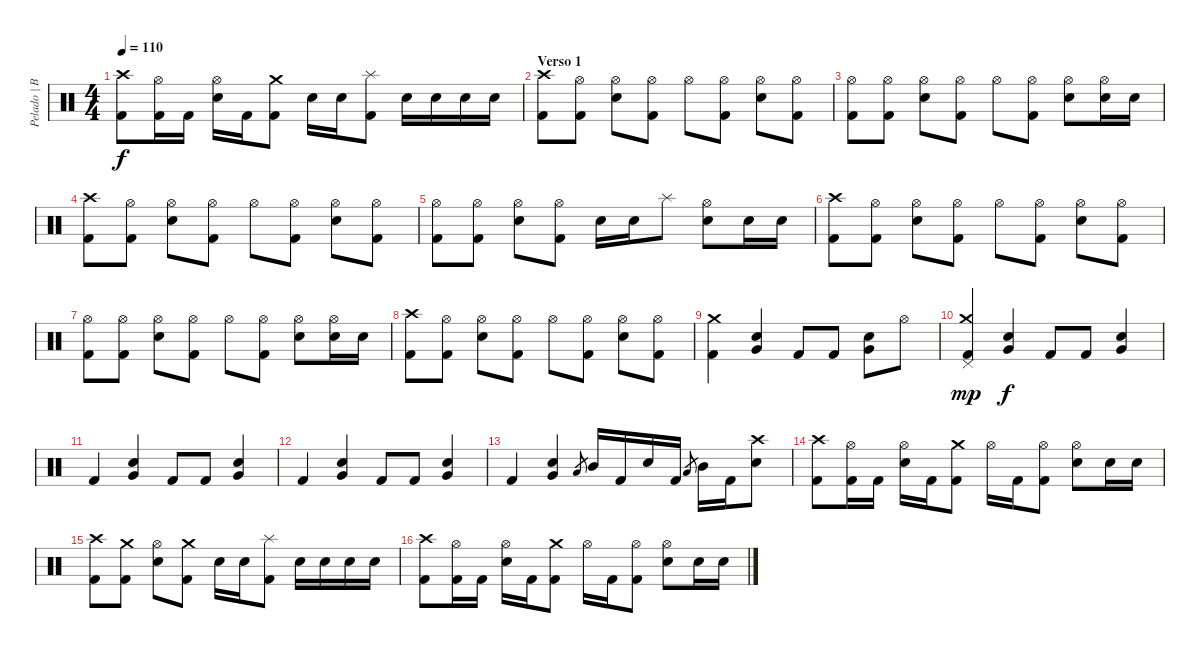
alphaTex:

\track ("Pelado | Bateria" "Pelado | B") {instrument percussion}
\staff {score}
\articulation defaults
\ts (4 4)
\tempo 110
\clef neutral
\ks c
("Crash high (hit)" "Kick (hit) 2").8{dy f} ("Hi-Hat (open)" "Kick (hit) 2").16 "Kick (hit) 2".16 ("Hi-Hat (open)" "Snare (hit) 2").16 "Kick (hit) 2".16 ("Crash medium (hit)" "Kick (hit) 2").8 "Snare (hit) 2".16 "Snare (hit) 2".16 ("Splash (hit)" "Kick (hit) 2").8 "Snare (hit) 2".16 "Snare (hit) 2".16 "Snare (hit) 2".16 "Snare (hit) 2".16 |
\section ("" "Verso 1")
("Crash high (hit)" "Kick (hit) 2").8 ("Hi-Hat (open)" "Kick (hit) 2").8 ("Hi-Hat (open)" "Snare (hit) 2").8 ("Hi-Hat (open)" "Kick (hit) 2").8 "Hi-Hat (open)".8 ("Hi-Hat (open)" "Kick (hit) 2").8 ("Hi-Hat (open)" "Snare (hit) 2").8 ("Hi-Hat (open)" "Kick (hit) 2").8 |
("Hi-Hat (open)" "Kick (hit) 2").8 ("Hi-Hat (open)" "Kick (hit) 2").8 ("Hi-Hat (open)" "Snare (hit) 2").8 ("Hi-Hat (open)" "Kick (hit) 2").8 "Hi-Hat (open)".8 ("Hi-Hat (open)" "Kick (hit) 2").8 ("Hi-Hat (open)" "Snare (hit) 2").8 ("Hi-Hat (open)" "Snare (hit) 2").16 "Snare (hit) 2".16 |
("Crash high (hit)" "Kick (hit) 2").8 ("Hi-Hat (open)" "Kick (hit) 2").8 ("Hi-Hat (open)" "Snare (hit) 2").8 ("Hi-Hat (open)" "Kick (hit) 2").8 "Hi-Hat (open)".8 ("Hi-Hat (open)" "Kick (hit) 2").8 ("Hi-Hat (open)" "Snare (hit) 2").8 ("Hi-Hat (open)" "Kick (hit) 2").8 |
("Hi-Hat (open)" "Kick (hit) 2").8 ("Hi-Hat (open)" "Kick (hit) 2").8 ("Hi-Hat (open)" "Snare (hit) 2").8 ("Hi-Hat (open)" "Kick (hit) 2").8 "Snare (hit) 2".16 "Snare (hit) 2".16 "Splash (hit)".8 ("Hi-Hat (open)" "Snare (hit) 2").8 "Snare (hit) 2".16 "Snare (hit) 2".16 |
("Crash high (hit)" "Kick (hit) 2").8 ("Hi-Hat (open)" "Kick (hit) 2").8 ("Hi-Hat (open)" "Snare (hit) 2").8 ("Hi-Hat (open)" "Kick (hit) 2").8 "Hi-Hat (open)".8 ("Hi-Hat (open)" "Kick (hit) 2").8 ("Hi-Hat (open)" "Snare (hit) 2").8 ("Hi-Hat (open)" "Kick (hit) 2").8 |
("Hi-Hat (open)" "Kick (hit) 2").8 ("Hi-Hat (open)" "Kick (hit) 2").8 ("Hi-Hat (open)" "Snare (hit) 2").8 ("Hi-Hat (open)" "Kick (hit) 2").8 "Hi-Hat (open)".8 ("Hi-Hat (open)" "Kick (hit) 2").8 ("Hi-Hat (open)" "Snare (hit) 2").8 ("Hi-Hat (open)" "Snare (hit) 2").16 "Snare (hit) 2".16 |
("Crash high (hit)" "Kick (hit) 2").8 ("Hi-Hat (open)" "Kick (hit) 2").8 ("Hi-Hat (open)" "Snare (hit) 2").8 ("Hi-Hat (open)" "Kick (hit) 2").8 "Hi-Hat (open)".8 ("Hi-Hat (open)" "Kick (hit) 2").8 ("Hi-Hat (open)" "Snare (hit) 2").8 ("Hi-Hat (open)" "Kick (hit) 2").8 |
("Crash medium (hit)" "Kick (hit) 2").4 ("Very Low Tom (hit)" "Snare (hit) 2").4 "Kick (hit) 2".8 "Kick (hit) 2".8 ("Very Low Tom (hit)" "Snare (hit) 2").8 "Hi-Hat (open)".8 |
("Crash medium (hit)" "Pedal Hi-Hat (hit)" "Kick (hit) 2").4{dy mp} ("Very Low Tom (hit)" "Snare (hit) 2").4{dy f} "Kick (hit) 2".8 "Kick (hit) 2".8 ("Very Low Tom (hit)" "Snare (hit) 2").4 |
"Kick (hit) 2".4 ("Very Low Tom (hit)" "Snare (hit) 2").4 "Kick (hit) 2".8 "Kick (hit) 2".8 ("Very Low Tom (hit)" "Snare (hit) 2").4 |
"Kick (hit) 2".4 ("Very Low Tom (hit)" "Snare (hit) 2").4 "Kick (hit) 2".8 "Kick (hit) 2".8 ("Very Low Tom (hit)" "Snare (hit) 2").4 |
"Kick (hit) 2".4 ("Very Low Tom (hit)" "Snare (hit) 2").4 "Low Tom (hit)".8{gr} "Mid Tom (hit)".16 "Kick (hit) 2".16 "Snare (hit) 2".16 "Kick (hit) 2".16 "Low Tom (hit)".8{gr} "Mid Tom (hit)".16 "Kick (hit) 2".16 ("Crash high (hit)" "Snare (hit) 2").8 |
("Crash high (hit)" "Kick (hit) 2").8 ("Hi-Hat (open)" "Kick (hit) 2").16 "Kick (hit) 2".16 ("Hi-Hat (open)" "Snare (hit) 2").16 "Kick (hit) 2".16 ("Crash medium (hit)" "Kick (hit) 2").8 "Hi-Hat (open)".16 "Kick (hit) 2".16 ("Hi-Hat (open)" "Kick (hit) 2").8 ("Hi-Hat (open)" "Snare (hit) 2").8 "Snare (hit) 2".16 "Snare (hit) 2".16 |
("Crash high (hit)" "Kick (hit) 2").8 ("Crash medium (hit)" "Kick (hit) 2").8 ("Hi-Hat (open)" "Snare (hit) 2").8 ("Crash medium (hit)" "Kick (hit) 2").8 "Snare (hit) 2".16 "Snare (hit) 2".16 ("Splash (hit)" "Kick (hit) 2").8 "Snare (hit) 2".16 "Snare (hit) 2".16 "Snare (hit) 2".16 "Snare (hit) 2".16 |
("Crash high (hit)" "Kick (hit) 2").8 ("Hi-Hat (open)" "Kick (hit) 2").16 "Kick (hit) 2".16 ("Hi-Hat (open)" "Snare (hit) 2").16 "Kick (hit) 2".16 ("Crash medium (hit)" "Kick (hit) 2").8 "Hi-Hat (open)".16 "Kick (hit) 2".16 ("Hi-Hat (open)" "Kick (hit) 2").8 ("Hi-Hat (open)" "Snare (hit) 2").8 "Snare (hit) 2".16 "Snare (hit) 2".16
